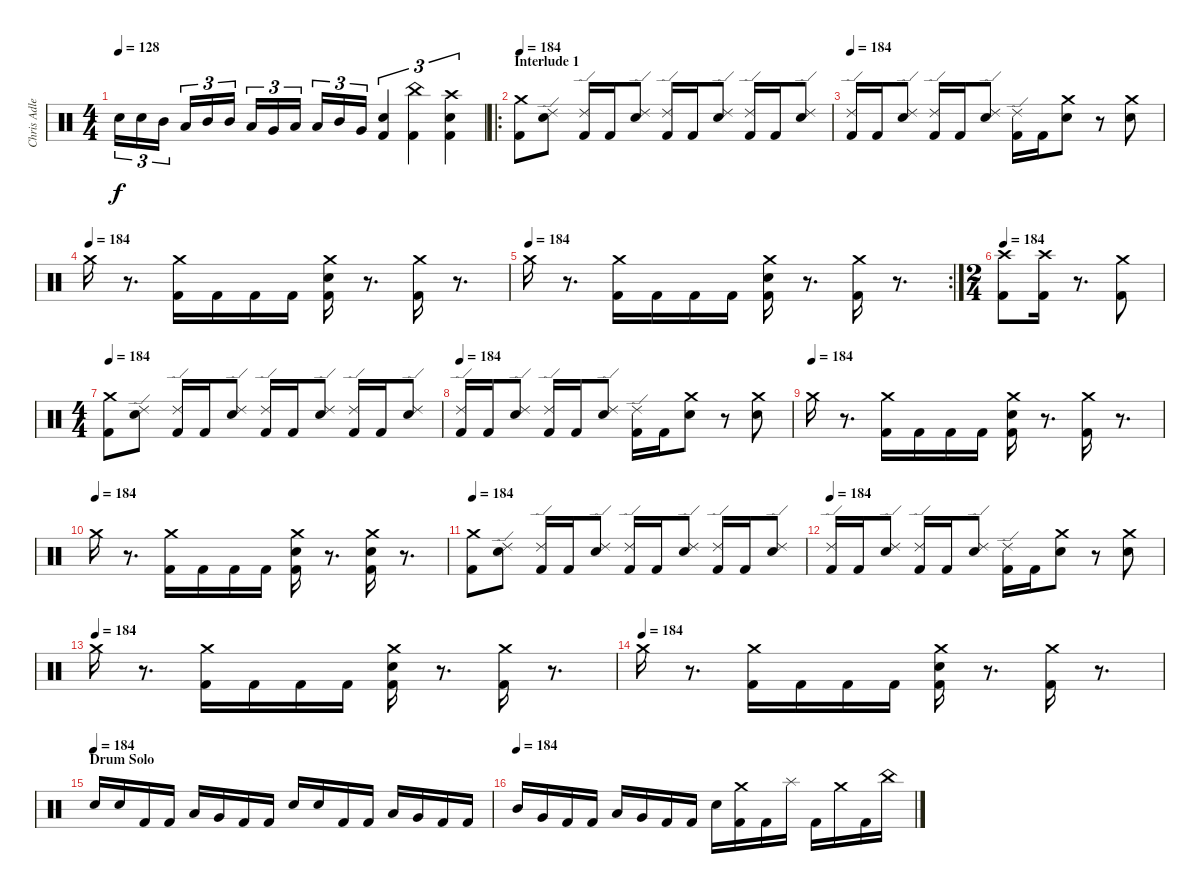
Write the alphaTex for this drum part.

\track ("Chris Adler" "Chris Adle") {instrument percussion}
\staff {score}
\articulation defaults
\ts (4 4)
\tempo 128
\clef neutral
\ks c "Snare (hit) 2".16{tu (3 2) dy f} "Snare (hit) 2".16{tu (3 2)} "Mid Tom (hit)".16{tu (3 2)} "Low Tom (hit)".16{tu (3 2)} "Mid Tom (hit)".16{tu (3 2)} "Mid Tom (hit)".16{tu (3 2)} "Low Tom (hit)".16{tu (3 2)} "Very Low Tom (hit)".16{tu (3 2)} "Low Tom (hit)".16{tu (3 2)} "Low Tom (hit)".16{tu (3 2)} "Mid Tom (hit)".16{tu (3 2)} "Very Low Tom (hit)".16{tu (3 2)}
("Snare (hit) 2" "Kick (hit) 2").4{tu (3 2)} ("China (hit)" "Kick (hit) 2").4{tu (3 2)} ("Crash high (hit)" "Snare (hit) 2" "Kick (hit) 2").4{tu (3 2)} |
\ro
\section ("" "Interlude 1")
\tempo 184
("Crash medium (hit)" "Kick (hit) 2").8 ("Ride (edge) 2" "Snare (hit) 2").8 ("Ride (edge) 2" "Kick (hit) 2").16 "Kick (hit) 2".16 ("Ride (edge) 2" "Snare (hit) 2").8 ("Ride (edge) 2" "Kick (hit) 2").16 "Kick (hit) 2".16 ("Ride (edge) 2" "Snare (hit) 2").8 ("Ride (edge) 2" "Kick (hit) 2").16 "Kick (hit) 2".16 ("Ride (edge) 2" "Snare (hit) 2").8 |
\tempo 184
("Ride (edge) 2" "Kick (hit) 2").16 "Kick (hit) 2".16 ("Ride (edge) 2" "Snare (hit) 2").8 ("Ride (edge) 2" "Kick (hit) 2").16 "Kick (hit) 2".16 ("Ride (edge) 2" "Snare (hit) 2").8 ("Ride (edge) 2" "Kick (hit) 2").16 "Kick (hit) 2".16 ("Crash medium (hit)" "Snare (hit) 2").8 r.8 ("Crash medium (hit)" "Snare (hit) 2").8 |
\tempo (184)
"Crash medium (hit)".16 r.8{d} ("Crash medium (hit)" "Kick (hit) 2").16 "Kick (hit) 2".16 "Kick (hit) 2".16 "Kick (hit) 2".16 ("Crash medium (hit)" "Snare (hit) 2" "Kick (hit) 2").16 r.8{d} ("Crash medium (hit)" "Kick (hit) 2").16 r.8{d} |
\rc 2
\tempo (184)
"Crash medium (hit)".16 r.8{d} ("Crash medium (hit)" "Kick (hit) 2").16 "Kick (hit) 2".16 "Kick (hit) 2".16 "Kick (hit) 2".16 ("Crash medium (hit)" "Snare (hit) 2" "Kick (hit) 2").16 r.8{d} ("Crash medium (hit)" "Kick (hit) 2").16 r.8{d} |
\ts (2 4)
\tempo 184
("Crash high (hit)" "Kick (hit) 2").8 ("Crash high (hit)" "Kick (hit) 2").16 r.8{d} ("Crash medium (hit)" "Kick (hit) 2").8 |
\ts (4 4)
\tempo 184
("Crash medium (hit)" "Kick (hit) 2").8 ("Ride (edge) 2" "Snare (hit) 2").8 ("Ride (edge) 2" "Kick (hit) 2").16 "Kick (hit) 2".16 ("Ride (edge) 2" "Snare (hit) 2").8 ("Ride (edge) 2" "Kick (hit) 2").16 "Kick (hit) 2".16 ("Ride (edge) 2" "Snare (hit) 2").8 ("Ride (edge) 2" "Kick (hit) 2").16 "Kick (hit) 2".16 ("Ride (edge) 2" "Snare (hit) 2").8 |
\tempo 184
("Ride (edge) 2" "Kick (hit) 2").16 "Kick (hit) 2".16 ("Ride (edge) 2" "Snare (hit) 2").8 ("Ride (edge) 2" "Kick (hit) 2").16 "Kick (hit) 2".16 ("Ride (edge) 2" "Snare (hit) 2").8 ("Ride (edge) 2" "Kick (hit) 2").16 "Kick (hit) 2".16 ("Crash medium (hit)" "Snare (hit) 2").8 r.8 ("Crash medium (hit)" "Snare (hit) 2").8 |
\tempo (184)
"Crash medium (hit)".16 r.8{d} ("Crash medium (hit)" "Kick (hit) 2").16 "Kick (hit) 2".16 "Kick (hit) 2".16 "Kick (hit) 2".16 ("Crash medium (hit)" "Snare (hit) 2" "Kick (hit) 2").16 r.8{d} ("Crash medium (hit)" "Kick (hit) 2").16 r.8{d} |
\tempo (184)
"Crash medium (hit)".16 r.8{d} ("Crash medium (hit)" "Kick (hit) 2").16 "Kick (hit) 2".16 "Kick (hit) 2".16 "Kick (hit) 2".16 ("Crash medium (hit)" "Snare (hit) 2" "Kick (hit) 2").16 r.8{d} ("Crash medium (hit)" "Snare (hit) 2" "Kick (hit) 2").16 r.8{d} |
\tempo 184
("Crash medium (hit)" "Kick (hit) 2").8 ("Ride (edge) 2" "Snare (hit) 2").8 ("Ride (edge) 2" "Kick (hit) 2").16 "Kick (hit) 2".16 ("Ride (edge) 2" "Snare (hit) 2").8 ("Ride (edge) 2" "Kick (hit) 2").16 "Kick (hit) 2".16 ("Ride (edge) 2" "Snare (hit) 2").8 ("Ride (edge) 2" "Kick (hit) 2").16 "Kick (hit) 2".16 ("Ride (edge) 2" "Snare (hit) 2").8 |
\tempo 184
("Ride (edge) 2" "Kick (hit) 2").16 "Kick (hit) 2".16 ("Ride (edge) 2" "Snare (hit) 2").8 ("Ride (edge) 2" "Kick (hit) 2").16 "Kick (hit) 2".16 ("Ride (edge) 2" "Snare (hit) 2").8 ("Ride (edge) 2" "Kick (hit) 2").16 "Kick (hit) 2".16 ("Crash medium (hit)" "Snare (hit) 2").8 r.8 ("Crash medium (hit)" "Snare (hit) 2").8 |
\tempo (184)
"Crash medium (hit)".16 r.8{d} ("Crash medium (hit)" "Kick (hit) 2").16 "Kick (hit) 2".16 "Kick (hit) 2".16 "Kick (hit) 2".16 ("Crash medium (hit)" "Snare (hit) 2" "Kick (hit) 2").16 r.8{d} ("Crash medium (hit)" "Kick (hit) 2").16 r.8{d} |
\tempo (184)
"Crash medium (hit)".16 r.8{d} ("Crash medium (hit)" "Kick (hit) 2").16 "Kick (hit) 2".16 "Kick (hit) 2".16 "Kick (hit) 2".16 ("Crash medium (hit)" "Snare (hit) 2" "Kick (hit) 2").16 r.8{d} ("Crash medium (hit)" "Kick (hit) 2").16 r.8{d} |
\section ("" "Drum Solo")
\tempo (184)
"Snare (hit) 2".16 "Snare (hit) 2".16 "Kick (hit) 2".16 "Kick (hit) 2".16 "Low Tom (hit)".16 "Very Low Tom (hit)".16 "Kick (hit) 2".16 "Kick (hit) 2".16 "Snare (hit) 2".16 "Snare (hit) 2".16 "Kick (hit) 2".16 "Kick (hit) 2".16 "Low Tom (hit)".16 "Very Low Tom (hit)".16 "Kick (hit) 2".16 "Kick (hit) 2".16 |
\tempo (184)
"Mid Tom (hit)".16 "Very Low Tom (hit)".16 "Kick (hit) 2".16 "Kick (hit) 2".16 "Low Tom (hit)".16 "Very Low Tom (hit)".16 "Kick (hit) 2".16 "Kick (hit) 2".16 "Snare (hit) 2".16 ("Crash medium (hit)" "Kick (hit) 2").16 "Kick (hit) 2".16 "Splash (hit)".16 "Kick (hit) 2".16 "Crash medium (hit)".16 "Kick (hit) 2".16 "China (hit)".16
